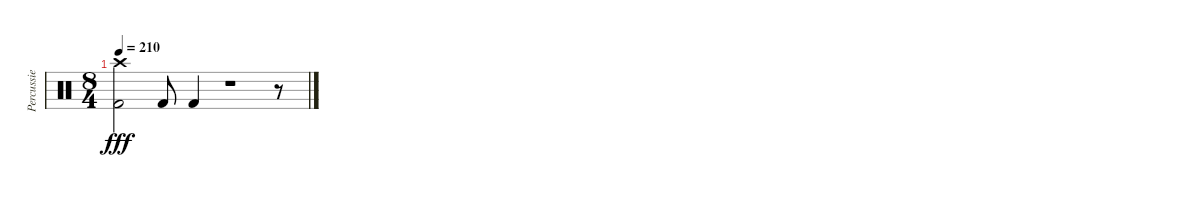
\track ("Percussie" "Percussie") {instrument percussion}
\staff {score}
\articulation defaults
\ts (8 4)
\tempo 210
\clef neutral
\ks c
("Crash high (hit)" "Kick (hit) 2").2{dy fff} "Kick (hit) 2".8 "Kick (hit) 2".4 r.1 r.8
